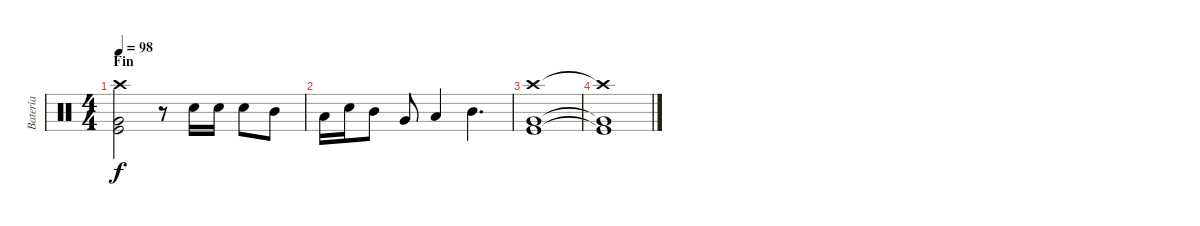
\track ("Batería" "Batería") {instrument percussion}
\staff {score}
\articulation defaults
\ts (4 4)
\section ("" "Fin")
\tempo 98
\clef neutral
\ks c
("Crash high (hit)" "Very Low Tom (hit)" "Kick (hit)").2{dy f} r.8 "Electric Snare (hit)".16 "Electric Snare (hit)".16 "Electric Snare (hit)".8 "Mid Tom (hit)".8 |
"Low Tom (hit)".16 "Electric Snare (hit)".16 "Mid Tom (hit)".8 "Very Low Tom (hit)".8 "Low Tom (hit)".4 "Mid Tom (hit)".4{d} |
("Crash high (hit)" "Very Low Tom (hit)" "Kick (hit)").1 |
("Crash high (hit)"{t} "Very Low Tom (hit)"{t} "Kick (hit)"{t}).1
